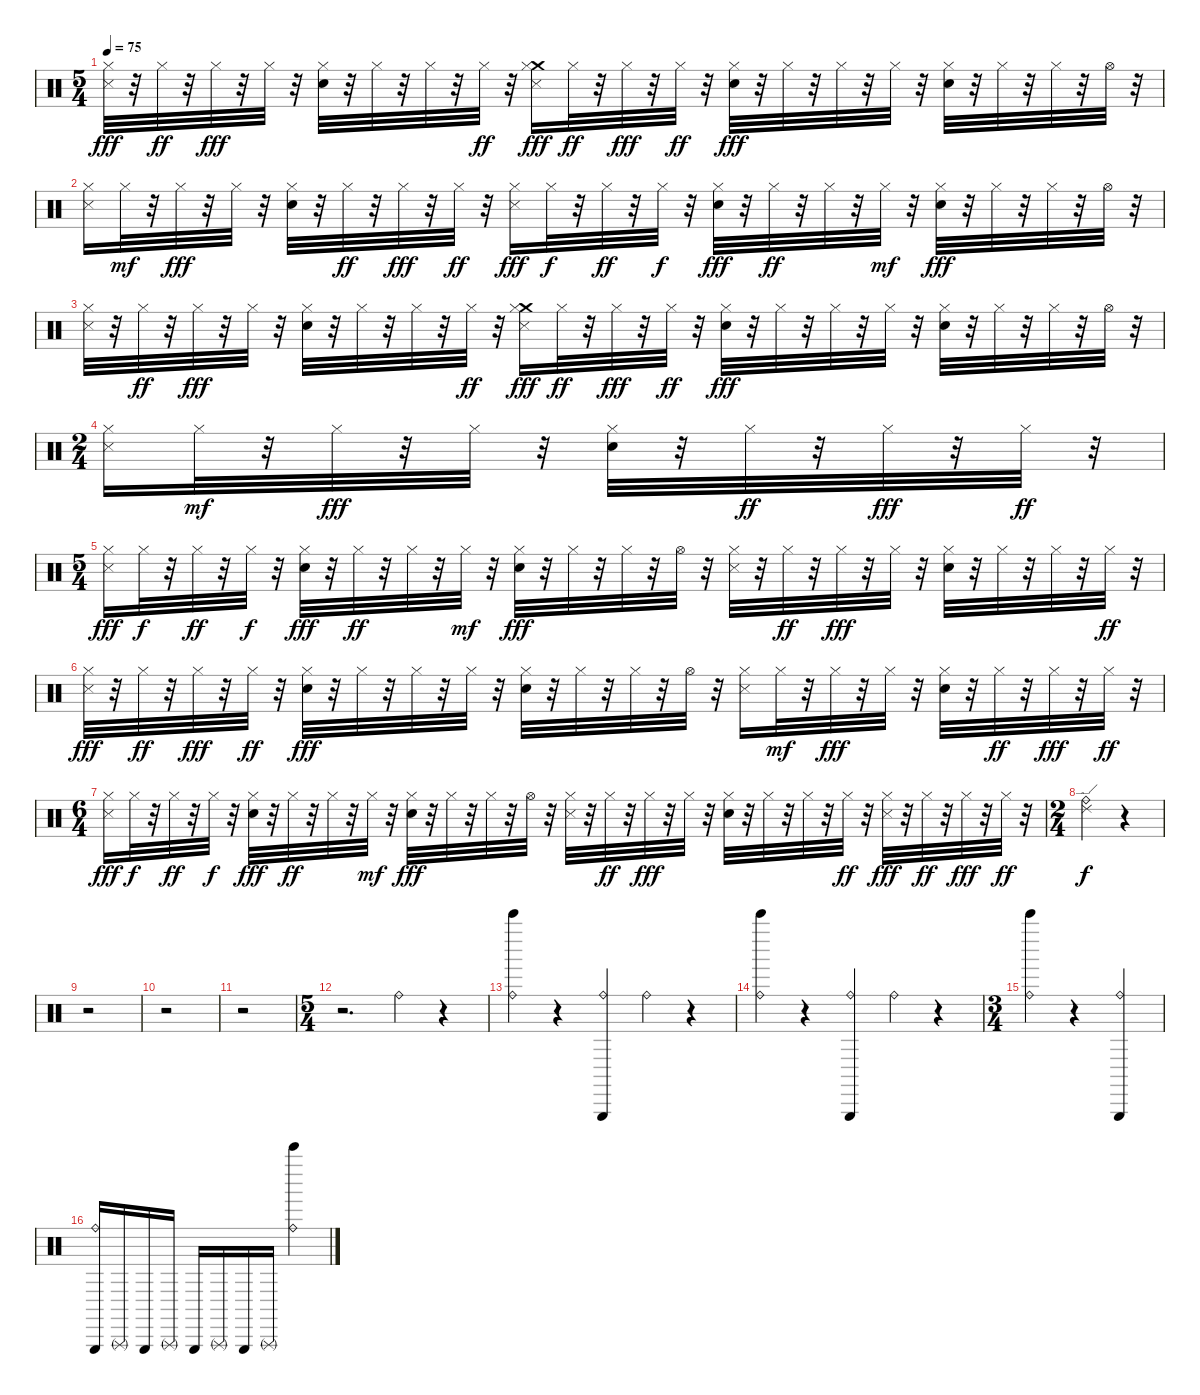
\track "" {instrument percussion}
\staff {score}
\articulation defaults
\ts (5 4)
\tempo 75
\clef neutral
\ks c
("Metronome (hit)" "Hi-Hat (closed)").32{dy fff} r.32 "Hi-Hat (closed)".32{dy ff} r.32 "Hi-Hat (closed)".32{dy fff} r.32 "Hi-Hat (closed)".32 r.32 ("Snare (hit) 2" "Hi-Hat (closed)").32 r.32 "Hi-Hat (closed)".32 r.32 "Hi-Hat (closed)".32 r.32 "Hi-Hat (closed)".32{dy ff} r.32 ("Crash medium (hit)" "Metronome (hit)" "Hi-Hat (closed)").16{dy fff} "Hi-Hat (closed)".32{dy ff} r.32 "Hi-Hat (closed)".32{dy fff} r.32 "Hi-Hat (closed)".32{dy ff} r.32 ("Hi-Hat (closed)" "Snare (hit) 2").32{dy fff} r.32 "Hi-Hat (closed)".32 r.32 "Hi-Hat (closed)".32 r.32 "Hi-Hat (closed)".32 r.32 ("Snare (hit) 2" "Hi-Hat (closed)").32 r.32 "Hi-Hat (closed)".32 r.32 "Hi-Hat (closed)".32 r.32 "Hi-Hat (open)".32 r.32 |
("Metronome (hit)" "Hi-Hat (closed)").16 "Hi-Hat (closed)".32{dy mf} r.32 "Hi-Hat (closed)".32{dy fff} r.32 "Hi-Hat (closed)".32 r.32 ("Snare (hit) 2" "Hi-Hat (closed)").32 r.32 "Hi-Hat (closed)".32{dy ff} r.32 "Hi-Hat (closed)".32{dy fff} r.32 "Hi-Hat (closed)".32{dy ff} r.32 ("Metronome (hit)" "Hi-Hat (closed)").16{dy fff} "Hi-Hat (closed)".32{dy f} r.32 "Hi-Hat (closed)".32{dy ff} r.32 "Hi-Hat (closed)".32{dy f} r.32 ("Snare (hit) 2" "Hi-Hat (closed)").32{dy fff} r.32 "Hi-Hat (closed)".32{dy ff} r.32 "Hi-Hat (closed)".32 r.32 "Hi-Hat (closed)".32{dy mf} r.32 ("Snare (hit) 2" "Hi-Hat (closed)").32{dy fff} r.32 "Hi-Hat (closed)".32 r.32 "Hi-Hat (closed)".32 r.32 "Hi-Hat (open)".32 r.32 |
("Metronome (hit)" "Hi-Hat (closed)").32 r.32 "Hi-Hat (closed)".32{dy ff} r.32 "Hi-Hat (closed)".32{dy fff} r.32 "Hi-Hat (closed)".32 r.32 ("Snare (hit) 2" "Hi-Hat (closed)").32 r.32 "Hi-Hat (closed)".32 r.32 "Hi-Hat (closed)".32 r.32 "Hi-Hat (closed)".32{dy ff} r.32 ("Crash medium (hit)" "Metronome (hit)" "Hi-Hat (closed)").16{dy fff} "Hi-Hat (closed)".32{dy ff} r.32 "Hi-Hat (closed)".32{dy fff} r.32 "Hi-Hat (closed)".32{dy ff} r.32 ("Hi-Hat (closed)" "Snare (hit) 2").32{dy fff} r.32 "Hi-Hat (closed)".32 r.32 "Hi-Hat (closed)".32 r.32 "Hi-Hat (closed)".32 r.32 ("Snare (hit) 2" "Hi-Hat (closed)").32 r.32 "Hi-Hat (closed)".32 r.32 "Hi-Hat (closed)".32 r.32 "Hi-Hat (open)".32 r.32 |
\ts (2 4)
("Metronome (hit)" "Hi-Hat (closed)").16 "Hi-Hat (closed)".32{dy mf} r.32 "Hi-Hat (closed)".32{dy fff} r.32 "Hi-Hat (closed)".32 r.32 ("Snare (hit) 2" "Hi-Hat (closed)").32 r.32 "Hi-Hat (closed)".32{dy ff} r.32 "Hi-Hat (closed)".32{dy fff} r.32 "Hi-Hat (closed)".32{dy ff} r.32 |
\ts (5 4)
("Metronome (hit)" "Hi-Hat (closed)").16{dy fff} "Hi-Hat (closed)".32{dy f} r.32 "Hi-Hat (closed)".32{dy ff} r.32 "Hi-Hat (closed)".32{dy f} r.32 ("Snare (hit) 2" "Hi-Hat (closed)").32{dy fff} r.32 "Hi-Hat (closed)".32{dy ff} r.32 "Hi-Hat (closed)".32 r.32 "Hi-Hat (closed)".32{dy mf} r.32 ("Snare (hit) 2" "Hi-Hat (closed)").32{dy fff} r.32 "Hi-Hat (closed)".32 r.32 "Hi-Hat (closed)".32 r.32 "Hi-Hat (open)".32 r.32 ("Metronome (hit)" "Hi-Hat (closed)").32 r.32 "Hi-Hat (closed)".32{dy ff} r.32 "Hi-Hat (closed)".32{dy fff} r.32 "Hi-Hat (closed)".32 r.32 ("Snare (hit) 2" "Hi-Hat (closed)").32 r.32 "Hi-Hat (closed)".32 r.32 "Hi-Hat (closed)".32 r.32 "Hi-Hat (closed)".32{dy ff} r.32 |
("Metronome (hit)" "Hi-Hat (closed)").32{dy fff} r.32 "Hi-Hat (closed)".32{dy ff} r.32 "Hi-Hat (closed)".32{dy fff} r.32 "Hi-Hat (closed)".32{dy ff} r.32 ("Hi-Hat (closed)" "Snare (hit) 2").32{dy fff} r.32 "Hi-Hat (closed)".32 r.32 "Hi-Hat (closed)".32 r.32 "Hi-Hat (closed)".32 r.32 ("Snare (hit) 2" "Hi-Hat (closed)").32 r.32 "Hi-Hat (closed)".32 r.32 "Hi-Hat (closed)".32 r.32 "Hi-Hat (open)".32 r.32 ("Metronome (hit)" "Hi-Hat (closed)").16 "Hi-Hat (closed)".32{dy mf} r.32 "Hi-Hat (closed)".32{dy fff} r.32 "Hi-Hat (closed)".32 r.32 ("Snare (hit) 2" "Hi-Hat (closed)").32 r.32 "Hi-Hat (closed)".32{dy ff} r.32 "Hi-Hat (closed)".32{dy fff} r.32 "Hi-Hat (closed)".32{dy ff} r.32 |
\ts (6 4)
("Metronome (hit)" "Hi-Hat (closed)").16{dy fff} "Hi-Hat (closed)".32{dy f} r.32 "Hi-Hat (closed)".32{dy ff} r.32 "Hi-Hat (closed)".32{dy f} r.32 ("Snare (hit) 2" "Hi-Hat (closed)").32{dy fff} r.32 "Hi-Hat (closed)".32{dy ff} r.32 "Hi-Hat (closed)".32 r.32 "Hi-Hat (closed)".32{dy mf} r.32 ("Snare (hit) 2" "Hi-Hat (closed)").32{dy fff} r.32 "Hi-Hat (closed)".32 r.32 "Hi-Hat (closed)".32 r.32 "Hi-Hat (open)".32 r.32 ("Metronome (hit)" "Hi-Hat (closed)").32 r.32 "Hi-Hat (closed)".32{dy ff} r.32 "Hi-Hat (closed)".32{dy fff} r.32 "Hi-Hat (closed)".32 r.32 ("Snare (hit) 2" "Hi-Hat (closed)").32 r.32 "Hi-Hat (closed)".32 r.32 "Hi-Hat (closed)".32 r.32 "Hi-Hat (closed)".32{dy ff} r.32 ("Metronome (hit)" "Hi-Hat (closed)").32{dy fff} r.32 "Hi-Hat (closed)".32{dy ff} r.32 "Hi-Hat (closed)".32{dy fff} r.32 "Hi-Hat (closed)".32{dy ff} r.32 |
\ts (2 4)
("Ride (bell)" "Ride (edge) 2").4{dy f} r.4 |
r.2 |
r.2 |
r.2 |
\ts (5 4)
r.2{d} "Ride (bell)".4 r.4 |
("Bell Tree (hit)" "Ride (bell)").4 r.4 ("Triangle (hit)" "Ride (bell)").4 "Ride (bell)".4 r.4 |
("Bell Tree (hit)" "Ride (bell)").4 r.4 ("Triangle (hit)" "Ride (bell)").4 "Ride (bell)".4 r.4 |
\ts (3 4)
("Bell Tree (hit)" "Ride (bell)").4 r.4 ("Triangle (hit)" "Ride (bell)").4 |
("Triangle (hit)" "Ride (bell)").16 "Triangle (rnute)".16 "Triangle (hit)".16 "Triangle (rnute)".16 "Triangle (hit)".16 "Triangle (rnute)".16 "Triangle (hit)".16 "Triangle (rnute)".16 ("Bell Tree (hit)" "Ride (bell)").4
